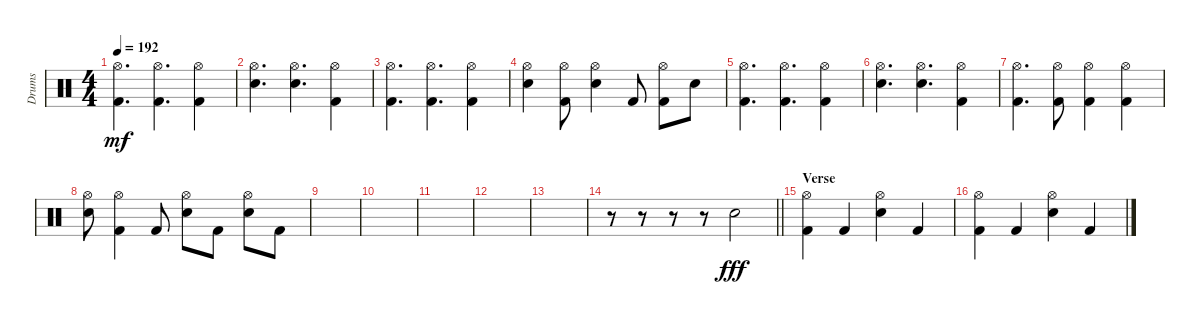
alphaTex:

\track ("Drums" "Drums") {instrument percussion}
\staff {score}
\articulation defaults
\ts (4 4)
\tempo 192
\clef neutral
\ks c
("Hi-Hat (open)" "Kick (hit) 2").4{d dy mf} ("Hi-Hat (open)" "Kick (hit) 2").4{d} ("Hi-Hat (open)" "Kick (hit) 2").4 |
("Hi-Hat (open)" "Electric Snare (hit)").4{d} ("Hi-Hat (open)" "Electric Snare (hit)").4{d} ("Hi-Hat (open)" "Kick (hit) 2").4 |
("Hi-Hat (open)" "Kick (hit) 2").4{d} ("Hi-Hat (open)" "Kick (hit) 2").4{d} ("Hi-Hat (open)" "Kick (hit) 2").4 |
("Hi-Hat (open)" "Electric Snare (hit)").4 ("Hi-Hat (open)" "Kick (hit) 2").8 ("Hi-Hat (open)" "Electric Snare (hit)").4 "Kick (hit) 2".8 ("Hi-Hat (open)" "Kick (hit) 2").8 "Electric Snare (hit)".8 |
("Hi-Hat (open)" "Kick (hit) 2").4{d} ("Hi-Hat (open)" "Kick (hit) 2").4{d} ("Hi-Hat (open)" "Kick (hit) 2").4 |
("Hi-Hat (open)" "Electric Snare (hit)").4{d} ("Hi-Hat (open)" "Electric Snare (hit)").4{d} ("Hi-Hat (open)" "Kick (hit) 2").4 |
("Hi-Hat (open)" "Kick (hit) 2").4{d} ("Hi-Hat (open)" "Kick (hit) 2").8 ("Hi-Hat (open)" "Kick (hit) 2").4 ("Hi-Hat (open)" "Kick (hit) 2").4 |
("Hi-Hat (open)" "Electric Snare (hit)").8 ("Hi-Hat (open)" "Kick (hit) 2").4 "Kick (hit) 2".8 ("Hi-Hat (open)" "Electric Snare (hit)").8 "Kick (hit) 2".8 ("Hi-Hat (open)" "Electric Snare (hit)").8 "Kick (hit) 2".8 |
|
|
|
|
|
\barLineRight lightlight
r.8 r.8 r.8 r.8 "Electric Snare (hit)".2{dy fff} |
\section ("" "Verse")
("Hi-Hat (open)" "Kick (hit) 2").4 "Kick (hit) 2".4 ("Hi-Hat (open)" "Electric Snare (hit)").4 "Kick (hit) 2".4 |
("Hi-Hat (open)" "Kick (hit) 2").4 "Kick (hit) 2".4 ("Hi-Hat (open)" "Electric Snare (hit)").4 "Kick (hit) 2".4
